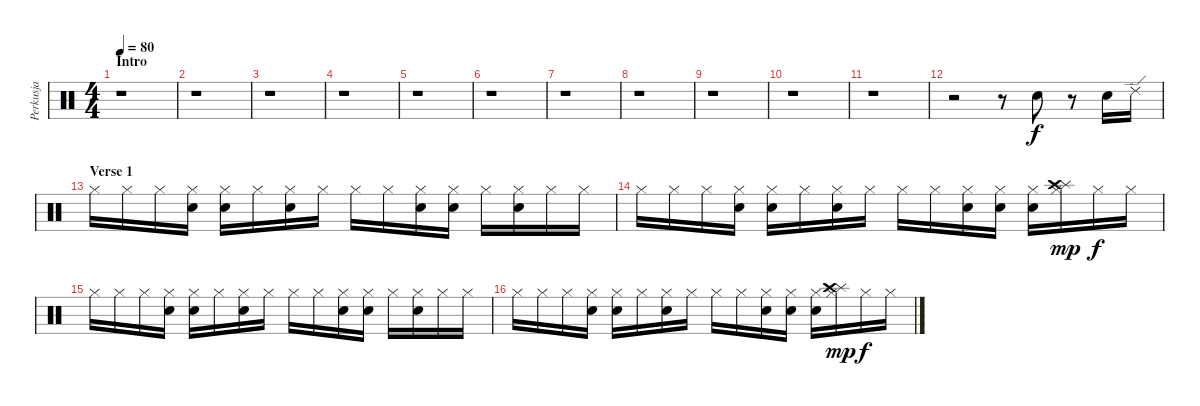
\track ("Perkusja" "Perkusja") {instrument percussion}
\staff {score}
\articulation defaults
\ts (4 4)
\section ("" "Intro")
\tempo 80
\clef neutral
\ks c
r.1{dy f} |
r.1 |
r.1 |
r.1 |
r.1 |
r.1 |
r.1 |
r.1 |
r.1 |
r.1 |
r.1 |
r.2 r.8 "Electric Snare (hit)".8 r.8 "Electric Snare (hit)".16 "Ride (edge) 2".16 |
\section ("" "Verse 1")
"Hi-Hat (closed)".16 "Hi-Hat (closed)".16 "Hi-Hat (closed)".16 ("Hi-Hat (closed)" "Electric Snare (hit)").16 ("Hi-Hat (closed)" "Snare (hit) 2").16 "Hi-Hat (closed)".16 ("Hi-Hat (closed)" "Electric Snare (hit)").16 "Hi-Hat (closed)".16 "Hi-Hat (closed)".16 "Hi-Hat (closed)".16 ("Hi-Hat (closed)" "Electric Snare (hit)").16 ("Hi-Hat (closed)" "Snare (hit) 2").16 "Hi-Hat (closed)".16 ("Hi-Hat (closed)" "Electric Snare (hit)").16 "Hi-Hat (closed)".16 "Hi-Hat (closed)".16 |
"Hi-Hat (closed)".16 "Hi-Hat (closed)".16 "Hi-Hat (closed)".16 ("Hi-Hat (closed)" "Electric Snare (hit)").16 ("Hi-Hat (closed)" "Snare (hit) 2").16 "Hi-Hat (closed)".16 ("Hi-Hat (closed)" "Electric Snare (hit)").16 "Hi-Hat (closed)".16 "Hi-Hat (closed)".16 "Hi-Hat (closed)".16 ("Hi-Hat (closed)" "Electric Snare (hit)").16 ("Hi-Hat (closed)" "Snare (hit) 2").16 ("Hi-Hat (closed)" "Electric Snare (hit)").16 ("Hi-Hat (closed)" "Splash (hit)" "Crash high (hit)").16{dy mp} "Hi-Hat (closed)".16{dy f} "Hi-Hat (closed)".16 |
"Hi-Hat (closed)".16 "Hi-Hat (closed)".16 "Hi-Hat (closed)".16 ("Hi-Hat (closed)" "Electric Snare (hit)").16 ("Hi-Hat (closed)" "Snare (hit) 2").16 "Hi-Hat (closed)".16 ("Hi-Hat (closed)" "Electric Snare (hit)").16 "Hi-Hat (closed)".16 "Hi-Hat (closed)".16 "Hi-Hat (closed)".16 ("Hi-Hat (closed)" "Electric Snare (hit)").16 ("Hi-Hat (closed)" "Snare (hit) 2").16 "Hi-Hat (closed)".16 ("Hi-Hat (closed)" "Electric Snare (hit)").16 "Hi-Hat (closed)".16 "Hi-Hat (closed)".16 |
"Hi-Hat (closed)".16 "Hi-Hat (closed)".16 "Hi-Hat (closed)".16 ("Hi-Hat (closed)" "Electric Snare (hit)").16 ("Hi-Hat (closed)" "Snare (hit) 2").16 "Hi-Hat (closed)".16 ("Hi-Hat (closed)" "Electric Snare (hit)").16 "Hi-Hat (closed)".16 "Hi-Hat (closed)".16 "Hi-Hat (closed)".16 ("Hi-Hat (closed)" "Electric Snare (hit)").16 ("Hi-Hat (closed)" "Snare (hit) 2").16 ("Hi-Hat (closed)" "Electric Snare (hit)").16 ("Hi-Hat (closed)" "Splash (hit)" "Crash high (hit)").16{dy mp} "Hi-Hat (closed)".16{dy f} "Hi-Hat (closed)".16
